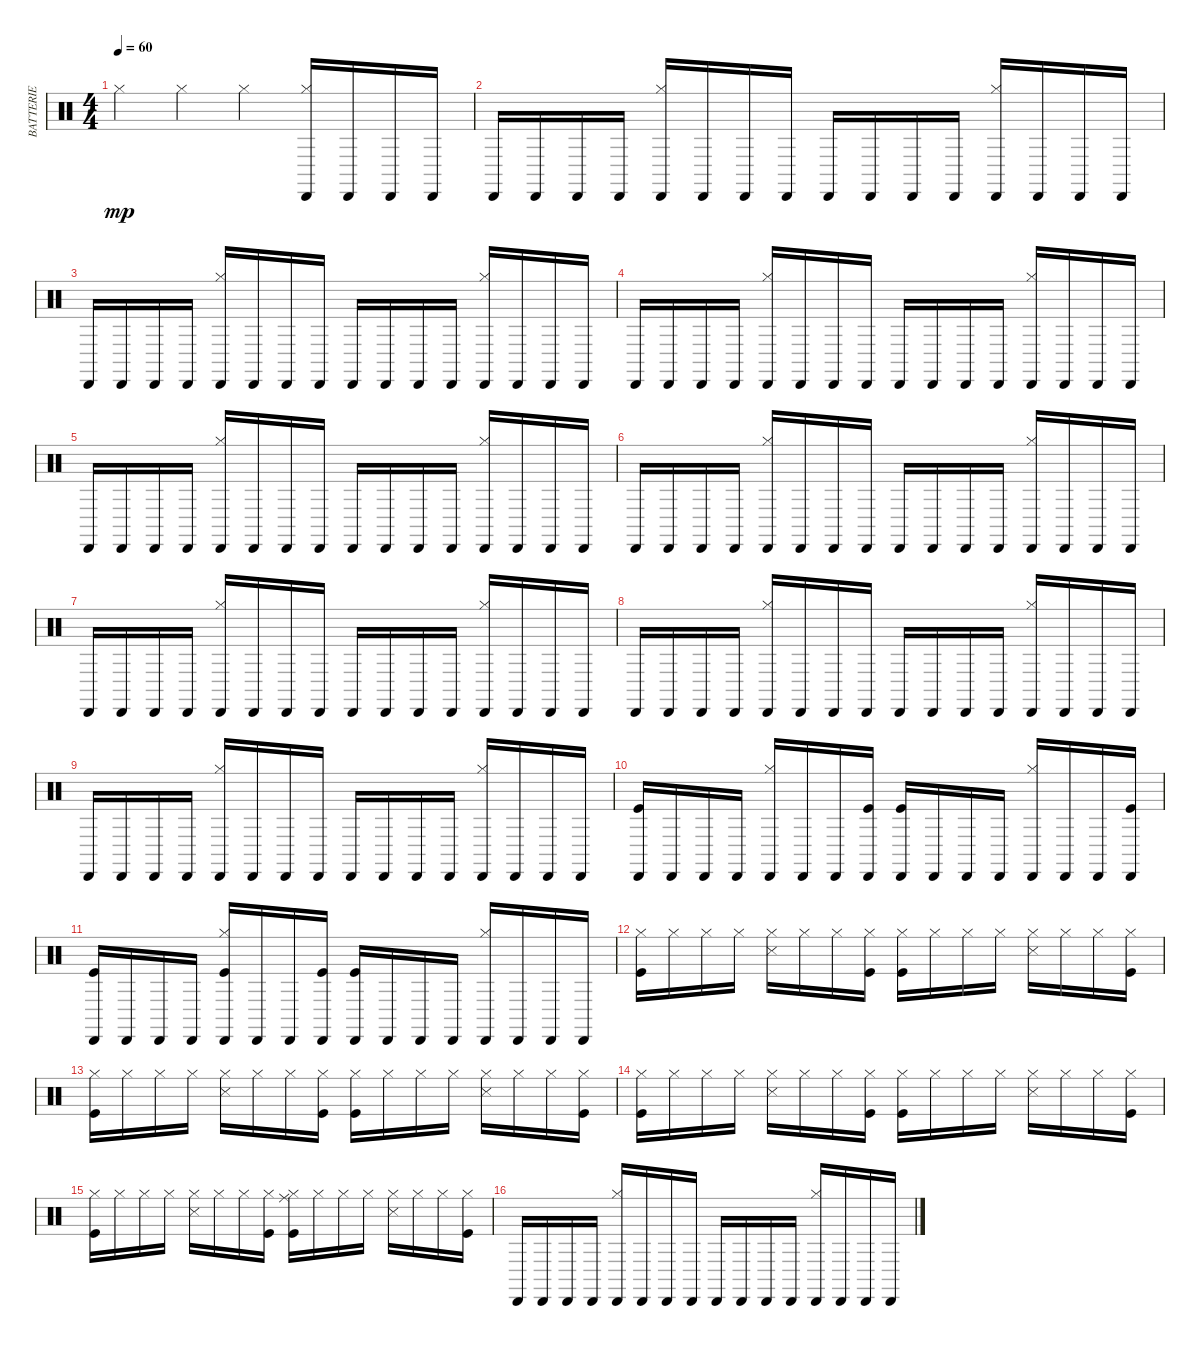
\track ("BATTERIE" "BATTERIE") {instrument percussion}
\staff {score}
\articulation defaults
\ts (4 4)
\tempo 60
\clef neutral
\ks c "Hi-Hat (closed)".4{dy mp} "Hi-Hat (closed)".4 "Hi-Hat (closed)".4
("Hi-Hat (closed)" "Cabasa (hit)").16 "Cabasa (hit)".16 "Cabasa (hit)".16 "Cabasa (hit)".16 |
"Cabasa (hit)".16 "Cabasa (hit)".16 "Cabasa (hit)".16 "Cabasa (hit)".16 ("Hi-Hat (closed)" "Cabasa (hit)").16 "Cabasa (hit)".16 "Cabasa (hit)".16 "Cabasa (hit)".16 "Cabasa (hit)".16 "Cabasa (hit)".16 "Cabasa (hit)".16 "Cabasa (hit)".16 ("Hi-Hat (closed)" "Cabasa (hit)").16 "Cabasa (hit)".16 "Cabasa (hit)".16 "Cabasa (hit)".16 |
"Cabasa (hit)".16 "Cabasa (hit)".16 "Cabasa (hit)".16 "Cabasa (hit)".16 ("Hi-Hat (closed)" "Cabasa (hit)").16 "Cabasa (hit)".16 "Cabasa (hit)".16 "Cabasa (hit)".16 "Cabasa (hit)".16 "Cabasa (hit)".16 "Cabasa (hit)".16 "Cabasa (hit)".16 ("Hi-Hat (closed)" "Cabasa (hit)").16 "Cabasa (hit)".16 "Cabasa (hit)".16 "Cabasa (hit)".16 |
"Cabasa (hit)".16 "Cabasa (hit)".16 "Cabasa (hit)".16 "Cabasa (hit)".16 ("Hi-Hat (closed)" "Cabasa (hit)").16 "Cabasa (hit)".16 "Cabasa (hit)".16 "Cabasa (hit)".16 "Cabasa (hit)".16 "Cabasa (hit)".16 "Cabasa (hit)".16 "Cabasa (hit)".16 ("Hi-Hat (closed)" "Cabasa (hit)").16 "Cabasa (hit)".16 "Cabasa (hit)".16 "Cabasa (hit)".16 |
"Cabasa (hit)".16 "Cabasa (hit)".16 "Cabasa (hit)".16 "Cabasa (hit)".16 ("Hi-Hat (closed)" "Cabasa (hit)").16 "Cabasa (hit)".16 "Cabasa (hit)".16 "Cabasa (hit)".16 "Cabasa (hit)".16 "Cabasa (hit)".16 "Cabasa (hit)".16 "Cabasa (hit)".16 ("Hi-Hat (closed)" "Cabasa (hit)").16 "Cabasa (hit)".16 "Cabasa (hit)".16 "Cabasa (hit)".16 |
"Cabasa (hit)".16 "Cabasa (hit)".16 "Cabasa (hit)".16 "Cabasa (hit)".16 ("Hi-Hat (closed)" "Cabasa (hit)").16 "Cabasa (hit)".16 "Cabasa (hit)".16 "Cabasa (hit)".16 "Cabasa (hit)".16 "Cabasa (hit)".16 "Cabasa (hit)".16 "Cabasa (hit)".16 ("Hi-Hat (closed)" "Cabasa (hit)").16 "Cabasa (hit)".16 "Cabasa (hit)".16 "Cabasa (hit)".16 |
"Cabasa (hit)".16 "Cabasa (hit)".16 "Cabasa (hit)".16 "Cabasa (hit)".16 ("Hi-Hat (closed)" "Cabasa (hit)").16 "Cabasa (hit)".16 "Cabasa (hit)".16 "Cabasa (hit)".16 "Cabasa (hit)".16 "Cabasa (hit)".16 "Cabasa (hit)".16 "Cabasa (hit)".16 ("Hi-Hat (closed)" "Cabasa (hit)").16 "Cabasa (hit)".16 "Cabasa (hit)".16 "Cabasa (hit)".16 |
"Cabasa (hit)".16 "Cabasa (hit)".16 "Cabasa (hit)".16 "Cabasa (hit)".16 ("Hi-Hat (closed)" "Cabasa (hit)").16 "Cabasa (hit)".16 "Cabasa (hit)".16 "Cabasa (hit)".16 "Cabasa (hit)".16 "Cabasa (hit)".16 "Cabasa (hit)".16 "Cabasa (hit)".16 ("Hi-Hat (closed)" "Cabasa (hit)").16 "Cabasa (hit)".16 "Cabasa (hit)".16 "Cabasa (hit)".16 |
"Cabasa (hit)".16 "Cabasa (hit)".16 "Cabasa (hit)".16 "Cabasa (hit)".16 ("Hi-Hat (closed)" "Cabasa (hit)").16 "Cabasa (hit)".16 "Cabasa (hit)".16 "Cabasa (hit)".16 "Cabasa (hit)".16 "Cabasa (hit)".16 "Cabasa (hit)".16 "Cabasa (hit)".16 ("Hi-Hat (closed)" "Cabasa (hit)").16 "Cabasa (hit)".16 "Cabasa (hit)".16 "Cabasa (hit)".16 |
("Cabasa (hit)" "Kick (hit)").16 "Cabasa (hit)".16 "Cabasa (hit)".16 "Cabasa (hit)".16 ("Hi-Hat (closed)" "Cabasa (hit)").16 "Cabasa (hit)".16 "Cabasa (hit)".16 ("Cabasa (hit)" "Kick (hit)").16 ("Cabasa (hit)" "Kick (hit)").16 "Cabasa (hit)".16 "Cabasa (hit)".16 "Cabasa (hit)".16 ("Hi-Hat (closed)" "Cabasa (hit)").16 "Cabasa (hit)".16 "Cabasa (hit)".16 ("Cabasa (hit)" "Kick (hit)").16 |
("Cabasa (hit)" "Kick (hit)").16 "Cabasa (hit)".16 "Cabasa (hit)".16 "Cabasa (hit)".16 ("Hi-Hat (closed)" "Cabasa (hit)" "Kick (hit)").16 "Cabasa (hit)".16 "Cabasa (hit)".16 ("Cabasa (hit)" "Kick (hit)").16 ("Cabasa (hit)" "Kick (hit)").16 "Cabasa (hit)".16 "Cabasa (hit)".16 "Cabasa (hit)".16 ("Hi-Hat (closed)" "Cabasa (hit)").16 "Cabasa (hit)".16 "Cabasa (hit)".16 "Cabasa (hit)".16 |
("Hi-Hat (closed)" "Kick (hit)").16 "Hi-Hat (closed)".16 "Hi-Hat (closed)".16 "Hi-Hat (closed)".16 ("Hi-Hat (closed)" "Snare (side stick) 3").16 "Hi-Hat (closed)".16 "Hi-Hat (closed)".16 ("Hi-Hat (closed)" "Kick (hit)").16 ("Hi-Hat (closed)" "Kick (hit)").16 "Hi-Hat (closed)".16 "Hi-Hat (closed)".16 "Hi-Hat (closed)".16 ("Hi-Hat (closed)" "Snare (side stick) 3").16 "Hi-Hat (closed)".16 "Hi-Hat (closed)".16 ("Hi-Hat (closed)" "Kick (hit)").16 |
("Hi-Hat (closed)" "Kick (hit)").16 "Hi-Hat (closed)".16 "Hi-Hat (closed)".16 "Hi-Hat (closed)".16 ("Hi-Hat (closed)" "Snare (side stick) 3").16 "Hi-Hat (closed)".16 "Hi-Hat (closed)".16 ("Hi-Hat (closed)" "Kick (hit)").16 ("Hi-Hat (closed)" "Kick (hit)").16 "Hi-Hat (closed)".16 "Hi-Hat (closed)".16 "Hi-Hat (closed)".16 ("Hi-Hat (closed)" "Snare (side stick) 3").16 "Hi-Hat (closed)".16 "Hi-Hat (closed)".16 ("Hi-Hat (closed)" "Kick (hit)").16 |
("Hi-Hat (closed)" "Kick (hit)").16 "Hi-Hat (closed)".16 "Hi-Hat (closed)".16 "Hi-Hat (closed)".16 ("Hi-Hat (closed)" "Snare (side stick) 3").16 "Hi-Hat (closed)".16 "Hi-Hat (closed)".16 ("Hi-Hat (closed)" "Kick (hit)").16 ("Hi-Hat (closed)" "Kick (hit)").16 "Hi-Hat (closed)".16 "Hi-Hat (closed)".16 "Hi-Hat (closed)".16 ("Hi-Hat (closed)" "Snare (side stick) 3").16 "Hi-Hat (closed)".16 "Hi-Hat (closed)".16 ("Hi-Hat (closed)" "Kick (hit)").16 |
("Hi-Hat (closed)" "Kick (hit)").16 "Hi-Hat (closed)".16 "Hi-Hat (closed)".16 "Hi-Hat (closed)".16 ("Hi-Hat (closed)" "Snare (side stick) 3").16 "Hi-Hat (closed)".16 "Hi-Hat (closed)".16 ("Hi-Hat (closed)" "Kick (hit)").16 ("Hi-Hat (closed)" "Kick (hit)" "Ride (middle)").16 "Hi-Hat (closed)".16 "Hi-Hat (closed)".16 "Hi-Hat (closed)".16 ("Hi-Hat (closed)" "Snare (side stick) 3").16 "Hi-Hat (closed)".16 "Hi-Hat (closed)".16 ("Hi-Hat (closed)" "Kick (hit)").16 |
"Cabasa (hit)".16 "Cabasa (hit)".16 "Cabasa (hit)".16 "Cabasa (hit)".16 ("Hi-Hat (closed)" "Cabasa (hit)").16 "Cabasa (hit)".16 "Cabasa (hit)".16 "Cabasa (hit)".16 "Cabasa (hit)".16 "Cabasa (hit)".16 "Cabasa (hit)".16 "Cabasa (hit)".16 ("Hi-Hat (closed)" "Cabasa (hit)").16 "Cabasa (hit)".16 "Cabasa (hit)".16 "Cabasa (hit)".16
